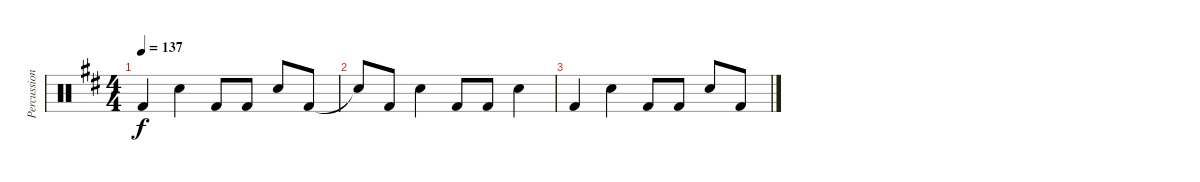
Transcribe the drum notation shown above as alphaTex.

\track ("Percussion" "Percussion") {instrument percussion}
\staff {score}
\articulation defaults
\ts (4 4)
\tempo 137
\clef neutral
\ks d "Kick (hit) 2".4{dy f} "Electric Snare (hit)".4 "Kick (hit) 2".8 "Kick (hit) 2".8 "Electric Snare (hit)".8 "Kick (hit) 2".8
|
"Snare (hit)"{t}.8 "Kick (hit) 2".8 "Electric Snare (hit)".4 "Kick (hit) 2".8 "Kick (hit) 2".8 "Electric Snare (hit)".4 |
"Kick (hit) 2".4 "Electric Snare (hit)".4 "Kick (hit) 2".8 "Kick (hit) 2".8 "Electric Snare (hit)".8 "Kick (hit) 2".8
